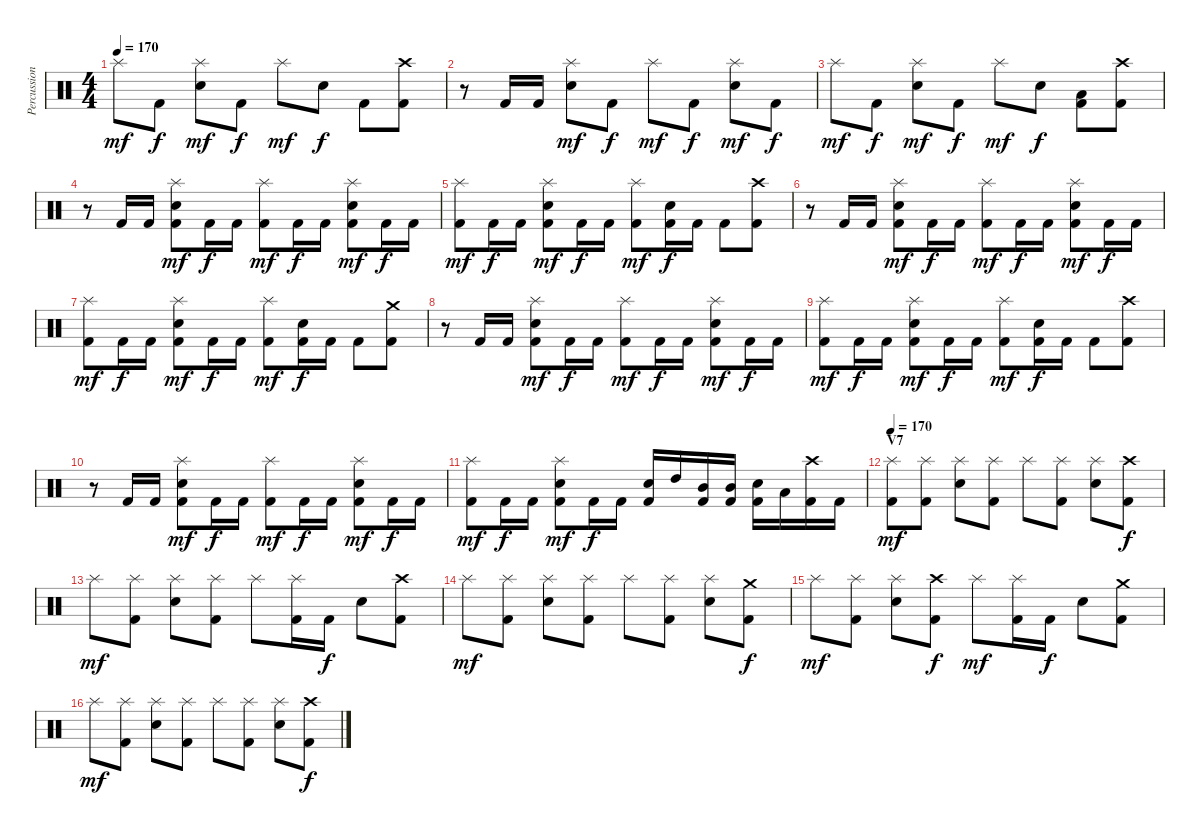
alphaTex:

\track ("Percussion" "Percussion") {instrument percussion}
\staff {score}
\articulation defaults
\ts (4 4)
\tempo 170
\clef neutral
\ks c "Splash (hit)".8{dy mf} "Kick (hit) 2".8{dy f}
("Splash (hit)" "Electric Snare (hit)").8{dy mf} "Kick (hit) 2".8{dy f} "Splash (hit)".8{dy mf} "Electric Snare (hit)".8{dy f} "Kick (hit) 2".8 ("Crash high (hit)" "Kick (hit) 2").8 |
r.8 "Kick (hit) 2".16 "Kick (hit) 2".16 ("Splash (hit)" "Electric Snare (hit)").8{dy mf} "Kick (hit) 2".8{dy f} "Splash (hit)".8{dy mf} "Kick (hit) 2".8{dy f} ("Splash (hit)" "Electric Snare (hit)").8{dy mf} "Kick (hit) 2".8{dy f} |
"Splash (hit)".8{dy mf} "Kick (hit) 2".8{dy f} ("Splash (hit)" "Electric Snare (hit)").8{dy mf} "Kick (hit) 2".8{dy f} "Splash (hit)".8{dy mf} "Electric Snare (hit)".8{dy f} ("Low Tom (hit)" "Kick (hit) 2").8 ("Crash high (hit)" "Kick (hit) 2").8 |
\section ("" "")
r.8 "Kick (hit) 2".16 "Kick (hit) 2".16 ("Splash (hit)" "Electric Snare (hit)" "Kick (hit) 2").8{dy mf} "Kick (hit) 2".16{dy f} "Kick (hit) 2".16 ("Splash (hit)" "Kick (hit) 2").8{dy mf} "Kick (hit) 2".16{dy f} "Kick (hit) 2".16 ("Splash (hit)" "Electric Snare (hit)" "Kick (hit) 2").8{dy mf} "Kick (hit) 2".16{dy f} "Kick (hit) 2".16 |
("Splash (hit)" "Kick (hit) 2").8{dy mf} "Kick (hit) 2".16{dy f} "Kick (hit) 2".16 ("Splash (hit)" "Electric Snare (hit)" "Kick (hit) 2").8{dy mf} "Kick (hit) 2".16{dy f} "Kick (hit) 2".16 ("Splash (hit)" "Kick (hit) 2").8{dy mf} ("Electric Snare (hit)" "Kick (hit) 2").16{dy f} "Kick (hit) 2".16 "Kick (hit) 2".8 ("Crash high (hit)" "Kick (hit) 2").8 |
r.8 "Kick (hit) 2".16 "Kick (hit) 2".16 ("Splash (hit)" "Electric Snare (hit)" "Kick (hit) 2").8{dy mf} "Kick (hit) 2".16{dy f} "Kick (hit) 2".16 ("Splash (hit)" "Kick (hit) 2").8{dy mf} "Kick (hit) 2".16{dy f} "Kick (hit) 2".16 ("Splash (hit)" "Electric Snare (hit)" "Kick (hit) 2").8{dy mf} "Kick (hit) 2".16{dy f} "Kick (hit) 2".16 |
("Splash (hit)" "Kick (hit) 2").8{dy mf} "Kick (hit) 2".16{dy f} "Kick (hit) 2".16 ("Splash (hit)" "Electric Snare (hit)" "Kick (hit) 2").8{dy mf} "Kick (hit) 2".16{dy f} "Kick (hit) 2".16 ("Splash (hit)" "Kick (hit) 2").8{dy mf} ("Electric Snare (hit)" "Kick (hit) 2").16{dy f} "Kick (hit) 2".16 "Kick (hit) 2".8 ("Crash medium (hit)" "Kick (hit) 2").8 |
r.8 "Kick (hit) 2".16 "Kick (hit) 2".16 ("Splash (hit)" "Electric Snare (hit)" "Kick (hit) 2").8{dy mf} "Kick (hit) 2".16{dy f} "Kick (hit) 2".16 ("Splash (hit)" "Kick (hit) 2").8{dy mf} "Kick (hit) 2".16{dy f} "Kick (hit) 2".16 ("Splash (hit)" "Electric Snare (hit)" "Kick (hit) 2").8{dy mf} "Kick (hit) 2".16{dy f} "Kick (hit) 2".16 |
("Splash (hit)" "Kick (hit) 2").8{dy mf} "Kick (hit) 2".16{dy f} "Kick (hit) 2".16 ("Splash (hit)" "Electric Snare (hit)" "Kick (hit) 2").8{dy mf} "Kick (hit) 2".16{dy f} "Kick (hit) 2".16 ("Splash (hit)" "Kick (hit) 2").8{dy mf} ("Electric Snare (hit)" "Kick (hit) 2").16{dy f} "Kick (hit) 2".16 "Kick (hit) 2".8 ("Crash high (hit)" "Kick (hit) 2").8 |
r.8 "Kick (hit) 2".16 "Kick (hit) 2".16 ("Splash (hit)" "Electric Snare (hit)" "Kick (hit) 2").8{dy mf} "Kick (hit) 2".16{dy f} "Kick (hit) 2".16 ("Splash (hit)" "Kick (hit) 2").8{dy mf} "Kick (hit) 2".16{dy f} "Kick (hit) 2".16 ("Splash (hit)" "Electric Snare (hit)" "Kick (hit) 2").8{dy mf} "Kick (hit) 2".16{dy f} "Kick (hit) 2".16 |
("Splash (hit)" "Kick (hit) 2").8{dy mf} "Kick (hit) 2".16{dy f} "Kick (hit) 2".16 ("Splash (hit)" "Electric Snare (hit)" "Kick (hit) 2").8{dy mf} "Kick (hit) 2".16{dy f} "Kick (hit) 2".16 ("Electric Snare (hit)" "Kick (hit) 2").16 "High Tom (hit)".16 ("Mid Tom (hit)" "Kick (hit) 2").16 ("Mid Tom (hit)" "Kick (hit) 2").16 ("Electric Snare (hit)" "Kick (hit) 2").16 "Low Tom (hit)".16 ("Crash high (hit)" "Kick (hit) 2").16 "Kick (hit) 2".16 |
\section ("" "V7")
\tempo 170
("Splash (hit)" "Kick (hit) 2").8{dy mf} ("Splash (hit)" "Kick (hit) 2").8 ("Splash (hit)" "Electric Snare (hit)").8 ("Splash (hit)" "Kick (hit) 2").8 "Splash (hit)".8 ("Splash (hit)" "Kick (hit) 2").8 ("Splash (hit)" "Electric Snare (hit)").8 ("Crash high (hit)" "Kick (hit) 2").8{dy f} |
"Splash (hit)".8{dy mf} ("Splash (hit)" "Kick (hit) 2").8 ("Splash (hit)" "Electric Snare (hit)").8 ("Splash (hit)" "Kick (hit) 2").8 "Splash (hit)".8 ("Splash (hit)" "Kick (hit) 2").16 "Kick (hit) 2".16{dy f} "Electric Snare (hit)".8 ("Crash high (hit)" "Kick (hit) 2").8 |
"Splash (hit)".8{dy mf} ("Splash (hit)" "Kick (hit) 2").8 ("Splash (hit)" "Electric Snare (hit)").8 ("Splash (hit)" "Kick (hit) 2").8 "Splash (hit)".8 ("Splash (hit)" "Kick (hit) 2").8 ("Splash (hit)" "Electric Snare (hit)").8 ("Crash medium (hit)" "Kick (hit) 2").8{dy f} |
"Splash (hit)".8{dy mf} ("Splash (hit)" "Kick (hit) 2").8 ("Splash (hit)" "Electric Snare (hit)").8 ("Crash high (hit)" "Kick (hit) 2").8{dy f} "Splash (hit)".8{dy mf} ("Splash (hit)" "Kick (hit) 2").16 "Kick (hit) 2".16{dy f} "Electric Snare (hit)".8 ("Crash medium (hit)" "Kick (hit) 2").8 |
"Splash (hit)".8{dy mf} ("Splash (hit)" "Kick (hit) 2").8 ("Splash (hit)" "Electric Snare (hit)").8 ("Splash (hit)" "Kick (hit) 2").8 "Splash (hit)".8 ("Splash (hit)" "Kick (hit) 2").8 ("Splash (hit)" "Electric Snare (hit)").8 ("Crash high (hit)" "Kick (hit) 2").8{dy f}
